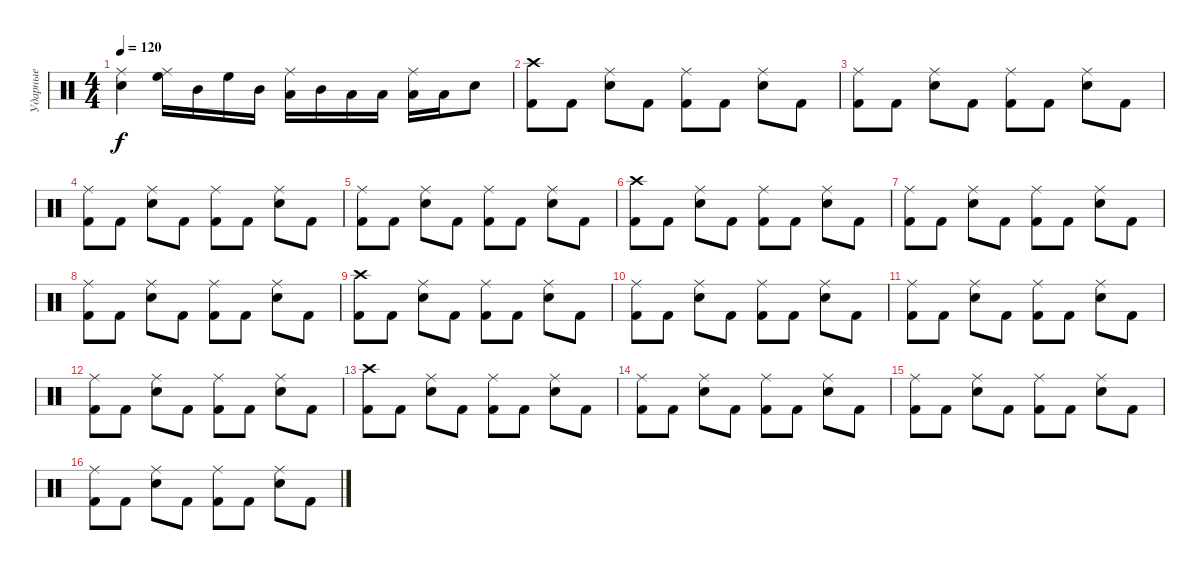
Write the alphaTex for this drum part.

\track ("Ударные" "Ударные") {instrument percussion}
\staff {score}
\articulation defaults
\ts (4 4)
\tempo 120
\clef neutral
\ks c
("Ride (middle)" "Snare (hit) 2").4{dy f} ("Ride (middle)" "High Floor Tom (hit)").16 "Mid Tom (hit)".16 "High Floor Tom (hit)".16 "Mid Tom (hit)".16 ("Ride (middle)" "Low Tom (hit)").16 "Mid Tom (hit)".16 "Low Tom (hit)".16 "Low Floor Tom (hit)".16 ("Ride (middle)" "Low Tom (hit)").16 "Low Floor Tom (hit)".16 "Snare (hit) 2".8 |
("Crash high (hit)" "Kick (hit) 2").8 "Kick (hit) 2".8 ("Ride (middle)" "Snare (hit) 2").8 "Kick (hit) 2".8 ("Ride (middle)" "Kick (hit) 2").8 "Kick (hit) 2".8 ("Ride (middle)" "Snare (hit) 2").8 "Kick (hit) 2".8 |
("Ride (middle)" "Kick (hit) 2").8 "Kick (hit) 2".8 ("Ride (middle)" "Snare (hit) 2").8 "Kick (hit) 2".8 ("Ride (middle)" "Kick (hit) 2").8 "Kick (hit) 2".8 ("Ride (middle)" "Snare (hit) 2").8 "Kick (hit) 2".8 |
("Ride (middle)" "Kick (hit) 2").8 "Kick (hit) 2".8 ("Ride (middle)" "Snare (hit) 2").8 "Kick (hit) 2".8 ("Ride (middle)" "Kick (hit) 2").8 "Kick (hit) 2".8 ("Ride (middle)" "Snare (hit) 2").8 "Kick (hit) 2".8 |
("Ride (middle)" "Kick (hit) 2").8 "Kick (hit) 2".8 ("Ride (middle)" "Snare (hit) 2").8 "Kick (hit) 2".8 ("Ride (middle)" "Kick (hit) 2").8 "Kick (hit) 2".8 ("Ride (middle)" "Snare (hit) 2").8 "Kick (hit) 2".8 |
("Crash high (hit)" "Kick (hit) 2").8 "Kick (hit) 2".8 ("Ride (middle)" "Snare (hit) 2").8 "Kick (hit) 2".8 ("Ride (middle)" "Kick (hit) 2").8 "Kick (hit) 2".8 ("Ride (middle)" "Snare (hit) 2").8 "Kick (hit) 2".8 |
("Ride (middle)" "Kick (hit) 2").8 "Kick (hit) 2".8 ("Ride (middle)" "Snare (hit) 2").8 "Kick (hit) 2".8 ("Ride (middle)" "Kick (hit) 2").8 "Kick (hit) 2".8 ("Ride (middle)" "Snare (hit) 2").8 "Kick (hit) 2".8 |
("Ride (middle)" "Kick (hit) 2").8 "Kick (hit) 2".8 ("Ride (middle)" "Snare (hit) 2").8 "Kick (hit) 2".8 ("Ride (middle)" "Kick (hit) 2").8 "Kick (hit) 2".8 ("Ride (middle)" "Snare (hit) 2").8 "Kick (hit) 2".8 |
("Crash high (hit)" "Kick (hit) 2").8 "Kick (hit) 2".8 ("Ride (middle)" "Snare (hit) 2").8 "Kick (hit) 2".8 ("Ride (middle)" "Kick (hit) 2").8 "Kick (hit) 2".8 ("Ride (middle)" "Snare (hit) 2").8 "Kick (hit) 2".8 |
("Ride (middle)" "Kick (hit) 2").8 "Kick (hit) 2".8 ("Ride (middle)" "Snare (hit) 2").8 "Kick (hit) 2".8 ("Ride (middle)" "Kick (hit) 2").8 "Kick (hit) 2".8 ("Ride (middle)" "Snare (hit) 2").8 "Kick (hit) 2".8 |
("Ride (middle)" "Kick (hit) 2").8 "Kick (hit) 2".8 ("Ride (middle)" "Snare (hit) 2").8 "Kick (hit) 2".8 ("Ride (middle)" "Kick (hit) 2").8 "Kick (hit) 2".8 ("Ride (middle)" "Snare (hit) 2").8 "Kick (hit) 2".8 |
("Ride (middle)" "Kick (hit) 2").8 "Kick (hit) 2".8 ("Ride (middle)" "Snare (hit) 2").8 "Kick (hit) 2".8 ("Ride (middle)" "Kick (hit) 2").8 "Kick (hit) 2".8 ("Ride (middle)" "Snare (hit) 2").8 "Kick (hit) 2".8 |
("Crash high (hit)" "Kick (hit) 2").8 "Kick (hit) 2".8 ("Ride (middle)" "Snare (hit) 2").8 "Kick (hit) 2".8 ("Ride (middle)" "Kick (hit) 2").8 "Kick (hit) 2".8 ("Ride (middle)" "Snare (hit) 2").8 "Kick (hit) 2".8 |
("Ride (middle)" "Kick (hit) 2").8 "Kick (hit) 2".8 ("Ride (middle)" "Snare (hit) 2").8 "Kick (hit) 2".8 ("Ride (middle)" "Kick (hit) 2").8 "Kick (hit) 2".8 ("Ride (middle)" "Snare (hit) 2").8 "Kick (hit) 2".8 |
("Ride (middle)" "Kick (hit) 2").8 "Kick (hit) 2".8 ("Ride (middle)" "Snare (hit) 2").8 "Kick (hit) 2".8 ("Ride (middle)" "Kick (hit) 2").8 "Kick (hit) 2".8 ("Ride (middle)" "Snare (hit) 2").8 "Kick (hit) 2".8 |
("Ride (middle)" "Kick (hit) 2").8 "Kick (hit) 2".8 ("Ride (middle)" "Snare (hit) 2").8 "Kick (hit) 2".8 ("Ride (middle)" "Kick (hit) 2").8 "Kick (hit) 2".8 ("Ride (middle)" "Snare (hit) 2").8 "Kick (hit) 2".8
